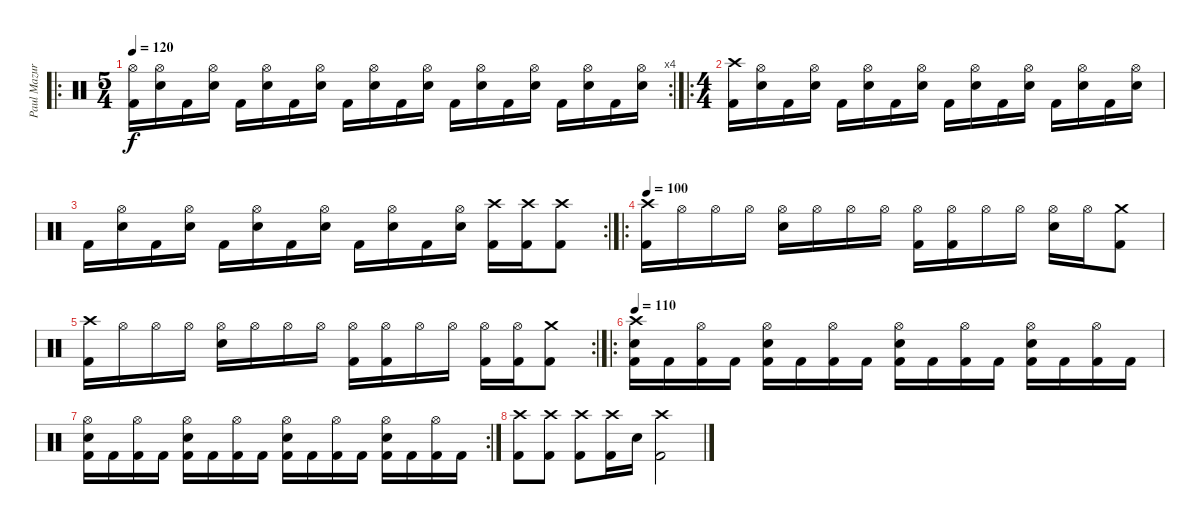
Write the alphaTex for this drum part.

\track ("Paul Mazurkievich" "Paul Mazur") {instrument percussion}
\staff {score}
\articulation defaults
\ro
\rc 4
\ts (5 4)
\tempo 120
\clef neutral
\ks c
("Kick (hit) 2" "Hi-Hat (open)").16{dy f} ("Electric Snare (hit)" "Hi-Hat (open)").16 "Kick (hit) 2".16 ("Electric Snare (hit)" "Hi-Hat (open)").16 "Kick (hit) 2".16 ("Electric Snare (hit)" "Hi-Hat (open)").16 "Kick (hit) 2".16 ("Electric Snare (hit)" "Hi-Hat (open)").16 "Kick (hit) 2".16 ("Electric Snare (hit)" "Hi-Hat (open)").16 "Kick (hit) 2".16 ("Electric Snare (hit)" "Hi-Hat (open)").16 "Kick (hit) 2".16 ("Electric Snare (hit)" "Hi-Hat (open)").16 "Kick (hit) 2".16 ("Electric Snare (hit)" "Hi-Hat (open)").16 "Kick (hit) 2".16 ("Electric Snare (hit)" "Hi-Hat (open)").16 "Kick (hit) 2".16 ("Electric Snare (hit)" "Hi-Hat (open)").16 |
\ro
\ts (4 4)
("Kick (hit) 2" "Crash high (hit)").16 ("Electric Snare (hit)" "Hi-Hat (open)").16 "Kick (hit) 2".16 ("Electric Snare (hit)" "Hi-Hat (open)").16 "Kick (hit) 2".16 ("Electric Snare (hit)" "Hi-Hat (open)").16 "Kick (hit) 2".16 ("Electric Snare (hit)" "Hi-Hat (open)").16 "Kick (hit) 2".16 ("Electric Snare (hit)" "Hi-Hat (open)").16 "Kick (hit) 2".16 ("Electric Snare (hit)" "Hi-Hat (open)").16 "Kick (hit) 2".16 ("Electric Snare (hit)" "Hi-Hat (open)").16 "Kick (hit) 2".16 ("Electric Snare (hit)" "Hi-Hat (open)").16 |
\rc 2 "Kick (hit) 2".16
("Electric Snare (hit)" "Hi-Hat (open)").16 "Kick (hit) 2".16 ("Electric Snare (hit)" "Hi-Hat (open)").16 "Kick (hit) 2".16 ("Electric Snare (hit)" "Hi-Hat (open)").16 "Kick (hit) 2".16 ("Electric Snare (hit)" "Hi-Hat (open)").16 "Kick (hit) 2".16 ("Electric Snare (hit)" "Hi-Hat (open)").16 "Kick (hit) 2".16 ("Electric Snare (hit)" "Hi-Hat (open)").16 ("Kick (hit) 2" "Crash high (hit)").16 ("Kick (hit) 2" "Crash high (hit)").16 ("Kick (hit) 2" "Crash high (hit)").8 |
\ro
\tempo 100
("Crash high (hit)" "Kick (hit) 2").16 "Hi-Hat (open)".16 "Hi-Hat (open)".16 "Hi-Hat (open)".16 ("Electric Snare (hit)" "Hi-Hat (open)").16 "Hi-Hat (open)".16 "Hi-Hat (open)".16 "Hi-Hat (open)".16 ("Kick (hit) 2" "Hi-Hat (open)").16 ("Kick (hit) 2" "Hi-Hat (open)").16 "Hi-Hat (open)".16 "Hi-Hat (open)".16 ("Electric Snare (hit)" "Hi-Hat (open)").16 "Hi-Hat (open)".16 ("Kick (hit) 2" "Crash medium (hit)").8 |
\rc 2
("Crash high (hit)" "Kick (hit) 2").16 "Hi-Hat (open)".16 "Hi-Hat (open)".16 "Hi-Hat (open)".16 ("Electric Snare (hit)" "Hi-Hat (open)").16 "Hi-Hat (open)".16 "Hi-Hat (open)".16 "Hi-Hat (open)".16 ("Kick (hit) 2" "Hi-Hat (open)").16 ("Kick (hit) 2" "Hi-Hat (open)").16 "Hi-Hat (open)".16 "Hi-Hat (open)".16 ("Kick (hit) 2" "Hi-Hat (open)").16 ("Kick (hit) 2" "Hi-Hat (open)").16 ("Kick (hit) 2" "Crash medium (hit)").8 |
\ro
\tempo 110
("Kick (hit) 2" "Crash high (hit)" "Electric Snare (hit)").16 "Kick (hit) 2".16 ("Kick (hit) 2" "Hi-Hat (open)").16 "Kick (hit) 2".16 ("Kick (hit) 2" "Hi-Hat (open)" "Electric Snare (hit)").16 "Kick (hit) 2".16 ("Kick (hit) 2" "Hi-Hat (open)").16 "Kick (hit) 2".16 ("Kick (hit) 2" "Hi-Hat (open)" "Electric Snare (hit)").16 "Kick (hit) 2".16 ("Kick (hit) 2" "Hi-Hat (open)").16 "Kick (hit) 2".16 ("Kick (hit) 2" "Hi-Hat (open)" "Electric Snare (hit)").16 "Kick (hit) 2".16 ("Kick (hit) 2" "Hi-Hat (open)").16 "Kick (hit) 2".16 |
\rc 2
("Kick (hit) 2" "Hi-Hat (open)" "Electric Snare (hit)").16 "Kick (hit) 2".16 ("Kick (hit) 2" "Hi-Hat (open)").16 "Kick (hit) 2".16 ("Kick (hit) 2" "Hi-Hat (open)" "Electric Snare (hit)").16 "Kick (hit) 2".16 ("Kick (hit) 2" "Hi-Hat (open)").16 "Kick (hit) 2".16 ("Kick (hit) 2" "Hi-Hat (open)" "Electric Snare (hit)").16 "Kick (hit) 2".16 ("Kick (hit) 2" "Hi-Hat (open)").16 "Kick (hit) 2".16 ("Kick (hit) 2" "Hi-Hat (open)" "Electric Snare (hit)").16 "Kick (hit) 2".16 ("Kick (hit) 2" "Hi-Hat (open)").16 "Kick (hit) 2".16 |
("Crash high (hit)" "Kick (hit) 2").8 ("Crash high (hit)" "Kick (hit) 2").8 ("Crash high (hit)" "Kick (hit) 2").8 ("Crash high (hit)" "Kick (hit) 2").16 "Electric Snare (hit)".16 ("Crash high (hit)" "Kick (hit) 2").2
